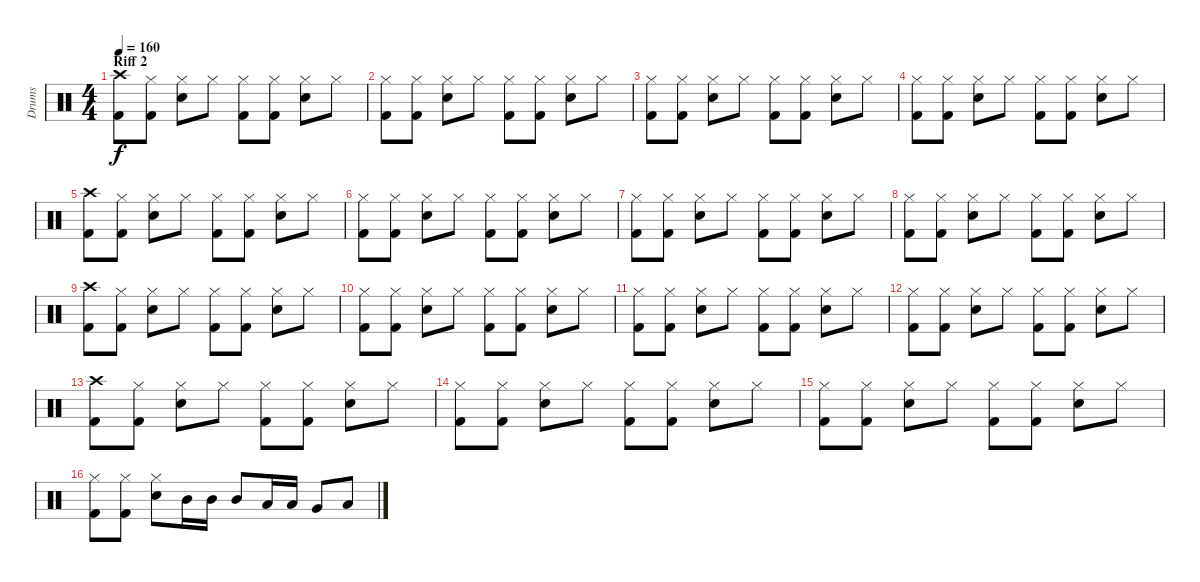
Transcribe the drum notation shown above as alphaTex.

\track ("Drums" "Drums") {instrument percussion}
\staff {score}
\articulation defaults
\ts (4 4)
\section ("" "Riff 2")
\tempo 160
\clef neutral
\ks c
("Crash high (hit)" "Kick (hit) 2").8{dy f} ("Hi-Hat (closed)" "Kick (hit) 2").8 ("Hi-Hat (closed)" "Electric Snare (hit)").8 "Hi-Hat (closed)".8 ("Hi-Hat (closed)" "Kick (hit) 2").8 ("Hi-Hat (closed)" "Kick (hit) 2").8 ("Hi-Hat (closed)" "Electric Snare (hit)").8 "Hi-Hat (closed)".8 |
("Hi-Hat (closed)" "Kick (hit) 2").8 ("Hi-Hat (closed)" "Kick (hit) 2").8 ("Hi-Hat (closed)" "Electric Snare (hit)").8 "Hi-Hat (closed)".8 ("Hi-Hat (closed)" "Kick (hit) 2").8 ("Hi-Hat (closed)" "Kick (hit) 2").8 ("Hi-Hat (closed)" "Electric Snare (hit)").8 "Hi-Hat (closed)".8 |
("Hi-Hat (closed)" "Kick (hit) 2").8 ("Hi-Hat (closed)" "Kick (hit) 2").8 ("Hi-Hat (closed)" "Electric Snare (hit)").8 "Hi-Hat (closed)".8 ("Hi-Hat (closed)" "Kick (hit) 2").8 ("Hi-Hat (closed)" "Kick (hit) 2").8 ("Hi-Hat (closed)" "Electric Snare (hit)").8 "Hi-Hat (closed)".8 |
("Hi-Hat (closed)" "Kick (hit) 2").8 ("Hi-Hat (closed)" "Kick (hit) 2").8 ("Hi-Hat (closed)" "Electric Snare (hit)").8 "Hi-Hat (closed)".8 ("Hi-Hat (closed)" "Kick (hit) 2").8 ("Hi-Hat (closed)" "Kick (hit) 2").8 ("Hi-Hat (closed)" "Electric Snare (hit)").8 "Hi-Hat (closed)".8 |
("Crash high (hit)" "Kick (hit) 2").8 ("Hi-Hat (closed)" "Kick (hit) 2").8 ("Hi-Hat (closed)" "Electric Snare (hit)").8 "Hi-Hat (closed)".8 ("Hi-Hat (closed)" "Kick (hit) 2").8 ("Hi-Hat (closed)" "Kick (hit) 2").8 ("Hi-Hat (closed)" "Electric Snare (hit)").8 "Hi-Hat (closed)".8 |
("Hi-Hat (closed)" "Kick (hit) 2").8 ("Hi-Hat (closed)" "Kick (hit) 2").8 ("Hi-Hat (closed)" "Electric Snare (hit)").8 "Hi-Hat (closed)".8 ("Hi-Hat (closed)" "Kick (hit) 2").8 ("Hi-Hat (closed)" "Kick (hit) 2").8 ("Hi-Hat (closed)" "Electric Snare (hit)").8 "Hi-Hat (closed)".8 |
("Hi-Hat (closed)" "Kick (hit) 2").8 ("Hi-Hat (closed)" "Kick (hit) 2").8 ("Hi-Hat (closed)" "Electric Snare (hit)").8 "Hi-Hat (closed)".8 ("Hi-Hat (closed)" "Kick (hit) 2").8 ("Hi-Hat (closed)" "Kick (hit) 2").8 ("Hi-Hat (closed)" "Electric Snare (hit)").8 "Hi-Hat (closed)".8 |
("Hi-Hat (closed)" "Kick (hit) 2").8 ("Hi-Hat (closed)" "Kick (hit) 2").8 ("Hi-Hat (closed)" "Electric Snare (hit)").8 "Hi-Hat (closed)".8 ("Hi-Hat (closed)" "Kick (hit) 2").8 ("Hi-Hat (closed)" "Kick (hit) 2").8 ("Hi-Hat (closed)" "Electric Snare (hit)").8 "Hi-Hat (closed)".8 |
("Crash high (hit)" "Kick (hit) 2").8 ("Hi-Hat (closed)" "Kick (hit) 2").8 ("Hi-Hat (closed)" "Electric Snare (hit)").8 "Hi-Hat (closed)".8 ("Hi-Hat (closed)" "Kick (hit) 2").8 ("Hi-Hat (closed)" "Kick (hit) 2").8 ("Hi-Hat (closed)" "Electric Snare (hit)").8 "Hi-Hat (closed)".8 |
("Hi-Hat (closed)" "Kick (hit) 2").8 ("Hi-Hat (closed)" "Kick (hit) 2").8 ("Hi-Hat (closed)" "Electric Snare (hit)").8 "Hi-Hat (closed)".8 ("Hi-Hat (closed)" "Kick (hit) 2").8 ("Hi-Hat (closed)" "Kick (hit) 2").8 ("Hi-Hat (closed)" "Electric Snare (hit)").8 "Hi-Hat (closed)".8 |
("Hi-Hat (closed)" "Kick (hit) 2").8 ("Hi-Hat (closed)" "Kick (hit) 2").8 ("Hi-Hat (closed)" "Electric Snare (hit)").8 "Hi-Hat (closed)".8 ("Hi-Hat (closed)" "Kick (hit) 2").8 ("Hi-Hat (closed)" "Kick (hit) 2").8 ("Hi-Hat (closed)" "Electric Snare (hit)").8 "Hi-Hat (closed)".8 |
("Hi-Hat (closed)" "Kick (hit) 2").8 ("Hi-Hat (closed)" "Kick (hit) 2").8 ("Hi-Hat (closed)" "Electric Snare (hit)").8 "Hi-Hat (closed)".8 ("Hi-Hat (closed)" "Kick (hit) 2").8 ("Hi-Hat (closed)" "Kick (hit) 2").8 ("Hi-Hat (closed)" "Electric Snare (hit)").8 "Hi-Hat (closed)".8 |
("Crash high (hit)" "Kick (hit) 2").8 ("Hi-Hat (closed)" "Kick (hit) 2").8 ("Hi-Hat (closed)" "Electric Snare (hit)").8 "Hi-Hat (closed)".8 ("Hi-Hat (closed)" "Kick (hit) 2").8 ("Hi-Hat (closed)" "Kick (hit) 2").8 ("Hi-Hat (closed)" "Electric Snare (hit)").8 "Hi-Hat (closed)".8 |
("Hi-Hat (closed)" "Kick (hit) 2").8 ("Hi-Hat (closed)" "Kick (hit) 2").8 ("Hi-Hat (closed)" "Electric Snare (hit)").8 "Hi-Hat (closed)".8 ("Hi-Hat (closed)" "Kick (hit) 2").8 ("Hi-Hat (closed)" "Kick (hit) 2").8 ("Hi-Hat (closed)" "Electric Snare (hit)").8 "Hi-Hat (closed)".8 |
("Hi-Hat (closed)" "Kick (hit) 2").8 ("Hi-Hat (closed)" "Kick (hit) 2").8 ("Hi-Hat (closed)" "Electric Snare (hit)").8 "Hi-Hat (closed)".8 ("Hi-Hat (closed)" "Kick (hit) 2").8 ("Hi-Hat (closed)" "Kick (hit) 2").8 ("Hi-Hat (closed)" "Electric Snare (hit)").8 "Hi-Hat (closed)".8 |
("Hi-Hat (closed)" "Kick (hit) 2").8 ("Hi-Hat (closed)" "Kick (hit) 2").8 ("Hi-Hat (closed)" "Electric Snare (hit)").8 "Mid Tom (hit)".16 "Mid Tom (hit)".16 "Mid Tom (hit)".8 "Low Tom (hit)".16 "Low Tom (hit)".16 "Very Low Tom (hit)".8 "Low Floor Tom (hit)".8
